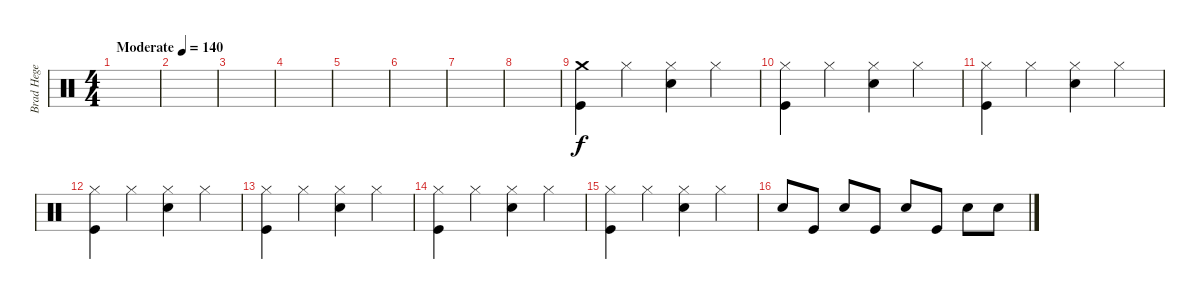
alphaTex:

\track ("Brad Hege" "Brad Hege") {instrument percussion}
\staff {score}
\articulation defaults
\ts (4 4)
\tempo (140 "Moderate")
\clef neutral
\ks c
|
|
|
|
|
|
|
|
("Crash medium (hit)" "Kick (hit)").4 "Hi-Hat (closed)".4 ("Hi-Hat (closed)" "Snare (hit) 2").4 "Hi-Hat (closed)".4 |
("Hi-Hat (closed)" "Kick (hit)").4 "Hi-Hat (closed)".4 ("Hi-Hat (closed)" "Snare (hit) 2").4 "Hi-Hat (closed)".4 |
("Hi-Hat (closed)" "Kick (hit)").4 "Hi-Hat (closed)".4 ("Hi-Hat (closed)" "Snare (hit) 2").4 "Hi-Hat (closed)".4 |
("Hi-Hat (closed)" "Kick (hit)").4 "Hi-Hat (closed)".4 ("Hi-Hat (closed)" "Snare (hit) 2").4 "Hi-Hat (closed)".4 |
("Hi-Hat (closed)" "Kick (hit)").4 "Hi-Hat (closed)".4 ("Hi-Hat (closed)" "Snare (hit) 2").4 "Hi-Hat (closed)".4 |
("Hi-Hat (closed)" "Kick (hit)").4 "Hi-Hat (closed)".4 ("Hi-Hat (closed)" "Snare (hit) 2").4 "Hi-Hat (closed)".4 |
("Hi-Hat (closed)" "Kick (hit)").4 "Hi-Hat (closed)".4 ("Hi-Hat (closed)" "Snare (hit) 2").4 "Hi-Hat (closed)".4 |
"Snare (hit) 2".8 "Kick (hit)".8 "Snare (hit) 2".8 "Kick (hit)".8 "Snare (hit) 2".8 "Kick (hit)".8 "Snare (hit) 2".8 "Snare (hit) 2".8
